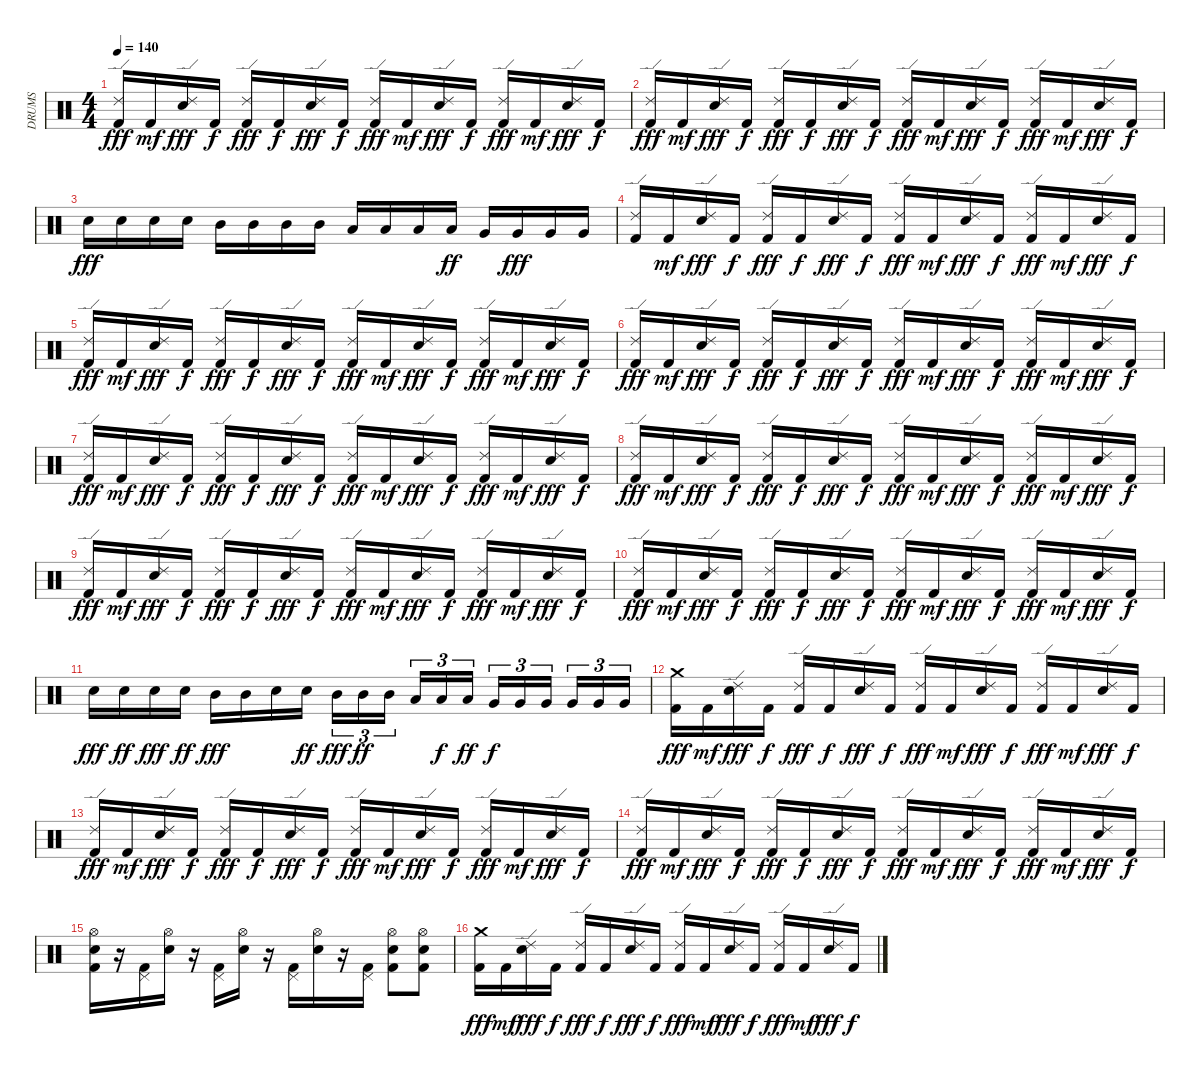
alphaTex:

\track ("DRUMS" "DRUMS") {instrument percussion}
\staff {score}
\articulation defaults
\ts (4 4)
\tempo 140
\clef neutral
\ks c
("Ride (edge) 2" "Kick (hit) 2").16{dy fff} "Kick (hit) 2".16{dy mf} ("Ride (edge) 2" "Electric Snare (hit)").16{dy fff} "Kick (hit) 2".16{dy f} ("Ride (edge) 2" "Kick (hit) 2").16{dy fff} "Kick (hit) 2".16{dy f} ("Ride (edge) 2" "Electric Snare (hit)").16{dy fff} "Kick (hit) 2".16{dy f} ("Ride (edge) 2" "Kick (hit) 2").16{dy fff} "Kick (hit) 2".16{dy mf} ("Ride (edge) 2" "Electric Snare (hit)").16{dy fff} "Kick (hit) 2".16{dy f} ("Ride (edge) 2" "Kick (hit) 2").16{dy fff} "Kick (hit) 2".16{dy mf} ("Electric Snare (hit)" "Ride (edge) 2").16{dy fff} "Kick (hit) 2".16{dy f} |
("Ride (edge) 2" "Kick (hit) 2").16{dy fff} "Kick (hit) 2".16{dy mf} ("Ride (edge) 2" "Electric Snare (hit)").16{dy fff} "Kick (hit) 2".16{dy f} ("Ride (edge) 2" "Kick (hit) 2").16{dy fff} "Kick (hit) 2".16{dy f} ("Ride (edge) 2" "Electric Snare (hit)").16{dy fff} "Kick (hit) 2".16{dy f} ("Ride (edge) 2" "Kick (hit) 2").16{dy fff} "Kick (hit) 2".16{dy mf} ("Ride (edge) 2" "Electric Snare (hit)").16{dy fff} "Kick (hit) 2".16{dy f} ("Ride (edge) 2" "Kick (hit) 2").16{dy fff} "Kick (hit) 2".16{dy mf} ("Electric Snare (hit)" "Ride (edge) 2").16{dy fff} "Kick (hit) 2".16{dy f} |
"Electric Snare (hit)".16{dy fff} "Electric Snare (hit)".16 "Electric Snare (hit)".16 "Electric Snare (hit)".16 "Mid Tom (hit)".16 "Mid Tom (hit)".16 "Mid Tom (hit)".16 "Mid Tom (hit)".16 "Low Tom (hit)".16 "Low Tom (hit)".16 "Low Tom (hit)".16 "Low Tom (hit)".16{dy ff} "Very Low Tom (hit)".16 "Very Low Tom (hit)".16{dy fff} "Very Low Tom (hit)".16 "Very Low Tom (hit)".16 |
("Ride (edge) 2" "Kick (hit) 2").16 "Kick (hit) 2".16{dy mf} ("Ride (edge) 2" "Electric Snare (hit)").16{dy fff} "Kick (hit) 2".16{dy f} ("Ride (edge) 2" "Kick (hit) 2").16{dy fff} "Kick (hit) 2".16{dy f} ("Ride (edge) 2" "Electric Snare (hit)").16{dy fff} "Kick (hit) 2".16{dy f} ("Ride (edge) 2" "Kick (hit) 2").16{dy fff} "Kick (hit) 2".16{dy mf} ("Ride (edge) 2" "Electric Snare (hit)").16{dy fff} "Kick (hit) 2".16{dy f} ("Ride (edge) 2" "Kick (hit) 2").16{dy fff} "Kick (hit) 2".16{dy mf} ("Electric Snare (hit)" "Ride (edge) 2").16{dy fff} "Kick (hit) 2".16{dy f} |
("Ride (edge) 2" "Kick (hit) 2").16{dy fff} "Kick (hit) 2".16{dy mf} ("Ride (edge) 2" "Electric Snare (hit)").16{dy fff} "Kick (hit) 2".16{dy f} ("Ride (edge) 2" "Kick (hit) 2").16{dy fff} "Kick (hit) 2".16{dy f} ("Ride (edge) 2" "Electric Snare (hit)").16{dy fff} "Kick (hit) 2".16{dy f} ("Ride (edge) 2" "Kick (hit) 2").16{dy fff} "Kick (hit) 2".16{dy mf} ("Ride (edge) 2" "Electric Snare (hit)").16{dy fff} "Kick (hit) 2".16{dy f} ("Ride (edge) 2" "Kick (hit) 2").16{dy fff} "Kick (hit) 2".16{dy mf} ("Electric Snare (hit)" "Ride (edge) 2").16{dy fff} "Kick (hit) 2".16{dy f} |
("Ride (edge) 2" "Kick (hit) 2").16{dy fff} "Kick (hit) 2".16{dy mf} ("Ride (edge) 2" "Electric Snare (hit)").16{dy fff} "Kick (hit) 2".16{dy f} ("Ride (edge) 2" "Kick (hit) 2").16{dy fff} "Kick (hit) 2".16{dy f} ("Ride (edge) 2" "Electric Snare (hit)").16{dy fff} "Kick (hit) 2".16{dy f} ("Ride (edge) 2" "Kick (hit) 2").16{dy fff} "Kick (hit) 2".16{dy mf} ("Ride (edge) 2" "Electric Snare (hit)").16{dy fff} "Kick (hit) 2".16{dy f} ("Ride (edge) 2" "Kick (hit) 2").16{dy fff} "Kick (hit) 2".16{dy mf} ("Electric Snare (hit)" "Ride (edge) 2").16{dy fff} "Kick (hit) 2".16{dy f} |
("Ride (edge) 2" "Kick (hit) 2").16{dy fff} "Kick (hit) 2".16{dy mf} ("Ride (edge) 2" "Electric Snare (hit)").16{dy fff} "Kick (hit) 2".16{dy f} ("Ride (edge) 2" "Kick (hit) 2").16{dy fff} "Kick (hit) 2".16{dy f} ("Ride (edge) 2" "Electric Snare (hit)").16{dy fff} "Kick (hit) 2".16{dy f} ("Ride (edge) 2" "Kick (hit) 2").16{dy fff} "Kick (hit) 2".16{dy mf} ("Ride (edge) 2" "Electric Snare (hit)").16{dy fff} "Kick (hit) 2".16{dy f} ("Ride (edge) 2" "Kick (hit) 2").16{dy fff} "Kick (hit) 2".16{dy mf} ("Electric Snare (hit)" "Ride (edge) 2").16{dy fff} "Kick (hit) 2".16{dy f} |
("Ride (edge) 2" "Kick (hit) 2").16{dy fff} "Kick (hit) 2".16{dy mf} ("Ride (edge) 2" "Electric Snare (hit)").16{dy fff} "Kick (hit) 2".16{dy f} ("Ride (edge) 2" "Kick (hit) 2").16{dy fff} "Kick (hit) 2".16{dy f} ("Ride (edge) 2" "Electric Snare (hit)").16{dy fff} "Kick (hit) 2".16{dy f} ("Ride (edge) 2" "Kick (hit) 2").16{dy fff} "Kick (hit) 2".16{dy mf} ("Ride (edge) 2" "Electric Snare (hit)").16{dy fff} "Kick (hit) 2".16{dy f} ("Ride (edge) 2" "Kick (hit) 2").16{dy fff} "Kick (hit) 2".16{dy mf} ("Electric Snare (hit)" "Ride (edge) 2").16{dy fff} "Kick (hit) 2".16{dy f} |
("Ride (edge) 2" "Kick (hit) 2").16{dy fff} "Kick (hit) 2".16{dy mf} ("Ride (edge) 2" "Electric Snare (hit)").16{dy fff} "Kick (hit) 2".16{dy f} ("Ride (edge) 2" "Kick (hit) 2").16{dy fff} "Kick (hit) 2".16{dy f} ("Ride (edge) 2" "Electric Snare (hit)").16{dy fff} "Kick (hit) 2".16{dy f} ("Ride (edge) 2" "Kick (hit) 2").16{dy fff} "Kick (hit) 2".16{dy mf} ("Ride (edge) 2" "Electric Snare (hit)").16{dy fff} "Kick (hit) 2".16{dy f} ("Ride (edge) 2" "Kick (hit) 2").16{dy fff} "Kick (hit) 2".16{dy mf} ("Electric Snare (hit)" "Ride (edge) 2").16{dy fff} "Kick (hit) 2".16{dy f} |
("Ride (edge) 2" "Kick (hit) 2").16{dy fff} "Kick (hit) 2".16{dy mf} ("Ride (edge) 2" "Electric Snare (hit)").16{dy fff} "Kick (hit) 2".16{dy f} ("Ride (edge) 2" "Kick (hit) 2").16{dy fff} "Kick (hit) 2".16{dy f} ("Ride (edge) 2" "Electric Snare (hit)").16{dy fff} "Kick (hit) 2".16{dy f} ("Ride (edge) 2" "Kick (hit) 2").16{dy fff} "Kick (hit) 2".16{dy mf} ("Ride (edge) 2" "Electric Snare (hit)").16{dy fff} "Kick (hit) 2".16{dy f} ("Ride (edge) 2" "Kick (hit) 2").16{dy fff} "Kick (hit) 2".16{dy mf} ("Electric Snare (hit)" "Ride (edge) 2").16{dy fff} "Kick (hit) 2".16{dy f} |
"Electric Snare (hit)".16{dy fff} "Electric Snare (hit)".16{dy ff} "Electric Snare (hit)".16{dy fff} "Electric Snare (hit)".16{dy ff} "Mid Tom (hit)".16{dy fff} "Mid Tom (hit)".16 "Electric Snare (hit)".16 "Electric Snare (hit)".16{dy ff} "Mid Tom (hit)".16{tu (3 2) dy fff} "Mid Tom (hit)".16{tu (3 2) dy ff} "Mid Tom (hit)".16{tu (3 2)} "Low Tom (hit)".16{tu (3 2)} "Low Tom (hit)".16{tu (3 2) dy f} "Low Tom (hit)".16{tu (3 2) dy ff} "Very Low Tom (hit)".16{tu (3 2) dy f} "Very Low Tom (hit)".16{tu (3 2)} "Very Low Tom (hit)".16{tu (3 2)} "Very Low Tom (hit)".16{tu (3 2)} "Very Low Tom (hit)".16{tu (3 2)} "Very Low Tom (hit)".16{tu (3 2)} |
("Crash medium (hit)" "Kick (hit) 2").16{dy fff} "Kick (hit) 2".16{dy mf} ("Ride (edge) 2" "Electric Snare (hit)").16{dy fff} "Kick (hit) 2".16{dy f} ("Ride (edge) 2" "Kick (hit) 2").16{dy fff} "Kick (hit) 2".16{dy f} ("Ride (edge) 2" "Electric Snare (hit)").16{dy fff} "Kick (hit) 2".16{dy f} ("Ride (edge) 2" "Kick (hit) 2").16{dy fff} "Kick (hit) 2".16{dy mf} ("Ride (edge) 2" "Electric Snare (hit)").16{dy fff} "Kick (hit) 2".16{dy f} ("Ride (edge) 2" "Kick (hit) 2").16{dy fff} "Kick (hit) 2".16{dy mf} ("Electric Snare (hit)" "Ride (edge) 2").16{dy fff} "Kick (hit) 2".16{dy f} |
("Ride (edge) 2" "Kick (hit) 2").16{dy fff} "Kick (hit) 2".16{dy mf} ("Ride (edge) 2" "Electric Snare (hit)").16{dy fff} "Kick (hit) 2".16{dy f} ("Ride (edge) 2" "Kick (hit) 2").16{dy fff} "Kick (hit) 2".16{dy f} ("Ride (edge) 2" "Electric Snare (hit)").16{dy fff} "Kick (hit) 2".16{dy f} ("Ride (edge) 2" "Kick (hit) 2").16{dy fff} "Kick (hit) 2".16{dy mf} ("Ride (edge) 2" "Electric Snare (hit)").16{dy fff} "Kick (hit) 2".16{dy f} ("Ride (edge) 2" "Kick (hit) 2").16{dy fff} "Kick (hit) 2".16{dy mf} ("Electric Snare (hit)" "Ride (edge) 2").16{dy fff} "Kick (hit) 2".16{dy f} |
("Ride (edge) 2" "Kick (hit) 2").16{dy fff} "Kick (hit) 2".16{dy mf} ("Ride (edge) 2" "Electric Snare (hit)").16{dy fff} "Kick (hit) 2".16{dy f} ("Ride (edge) 2" "Kick (hit) 2").16{dy fff} "Kick (hit) 2".16{dy f} ("Ride (edge) 2" "Electric Snare (hit)").16{dy fff} "Kick (hit) 2".16{dy f} ("Ride (edge) 2" "Kick (hit) 2").16{dy fff} "Kick (hit) 2".16{dy mf} ("Ride (edge) 2" "Electric Snare (hit)").16{dy fff} "Kick (hit) 2".16{dy f} ("Ride (edge) 2" "Kick (hit) 2").16{dy fff} "Kick (hit) 2".16{dy mf} ("Electric Snare (hit)" "Ride (edge) 2").16{dy fff} "Kick (hit) 2".16{dy f} |
("Hi-Hat (open)" "Kick (hit) 2" "Electric Snare (hit)").16 r.16 ("Kick (hit) 2" "Pedal Hi-Hat (hit)").16 ("Hi-Hat (open)" "Electric Snare (hit)").16 r.16 ("Pedal Hi-Hat (hit)" "Kick (hit) 2").16 ("Hi-Hat (open)" "Electric Snare (hit)").16 r.16 ("Pedal Hi-Hat (hit)" "Kick (hit) 2").16 ("Hi-Hat (open)" "Electric Snare (hit)").16 r.16 ("Pedal Hi-Hat (hit)" "Kick (hit) 2").16 ("Kick (hit) 2" "Hi-Hat (open)" "Electric Snare (hit)").8 ("Kick (hit) 2" "Hi-Hat (open)" "Electric Snare (hit)").8 |
("Crash medium (hit)" "Kick (hit) 2").16{dy fff} "Kick (hit) 2".16{dy mf} ("Ride (edge) 2" "Electric Snare (hit)").16{dy fff} "Kick (hit) 2".16{dy f} ("Ride (edge) 2" "Kick (hit) 2").16{dy fff} "Kick (hit) 2".16{dy f} ("Ride (edge) 2" "Electric Snare (hit)").16{dy fff} "Kick (hit) 2".16{dy f} ("Ride (edge) 2" "Kick (hit) 2").16{dy fff} "Kick (hit) 2".16{dy mf} ("Ride (edge) 2" "Electric Snare (hit)").16{dy fff} "Kick (hit) 2".16{dy f} ("Ride (edge) 2" "Kick (hit) 2").16{dy fff} "Kick (hit) 2".16{dy mf} ("Electric Snare (hit)" "Ride (edge) 2").16{dy fff} "Kick (hit) 2".16{dy f}
